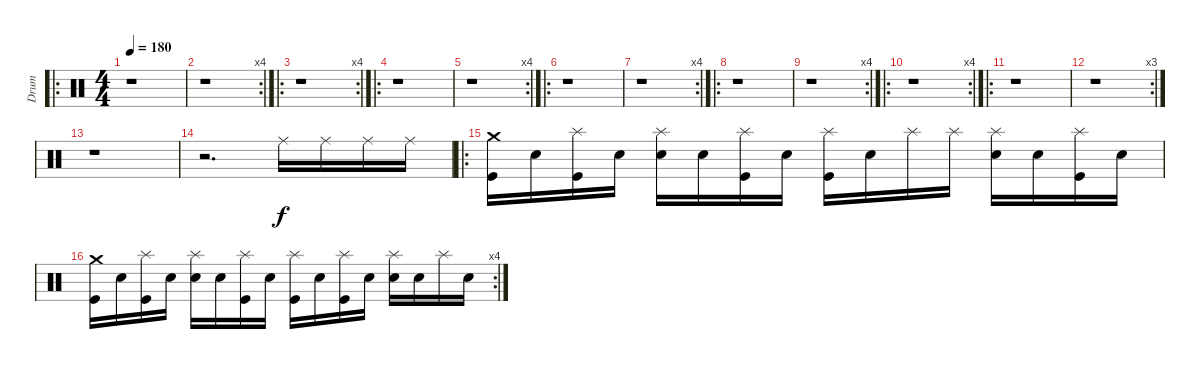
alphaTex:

\track ("Drum" "Drum") {instrument percussion}
\staff {score}
\articulation defaults
\ro
\ts (4 4)
\tempo 180
\clef neutral
\ks c
r.1{dy f} |
\rc 4
r.1 |
\ro
\rc 4
r.1 |
\ro
r.1 |
\rc 4
r.1 |
\ro
r.1 |
\rc 4
r.1 |
\ro
r.1 |
\rc 4
r.1 |
\ro
\rc 4
r.1 |
\ro
r.1 |
\rc 3
r.1 |
r.1 |
r.2{d balance 16} "Ride (middle)".16{balance 8} "Ride (middle)".16 "Ride (middle)".16 "Ride (middle)".16 |
\ro
("Crash medium (hit)" "Kick (hit)").16 "Snare (hit)".16 ("Splash (hit)" "Kick (hit)").16 "Snare (hit)".16 ("Splash (hit)" "Snare (hit) 2").16 "Snare (hit)".16 ("Splash (hit)" "Kick (hit)").16 "Snare (hit)".16 ("Splash (hit)" "Kick (hit)").16 "Snare (hit)".16 "Splash (hit)".16 "Splash (hit)".16 ("Splash (hit)" "Snare (hit) 2").16 "Snare (hit)".16 ("Splash (hit)" "Kick (hit)").16 "Snare (hit)".16 |
\rc 4
("Crash medium (hit)" "Kick (hit)").16 "Snare (hit)".16 ("Splash (hit)" "Kick (hit)").16 "Snare (hit)".16 ("Splash (hit)" "Snare (hit) 2").16 "Snare (hit)".16 ("Splash (hit)" "Kick (hit)").16 "Snare (hit)".16 ("Splash (hit)" "Kick (hit)").16 "Snare (hit)".16 ("Splash (hit)" "Kick (hit)").16 "Snare (hit)".16 ("Splash (hit)" "Snare (hit) 2").16 "Snare (hit)".16 "Splash (hit)".16 "Snare (hit)".16
